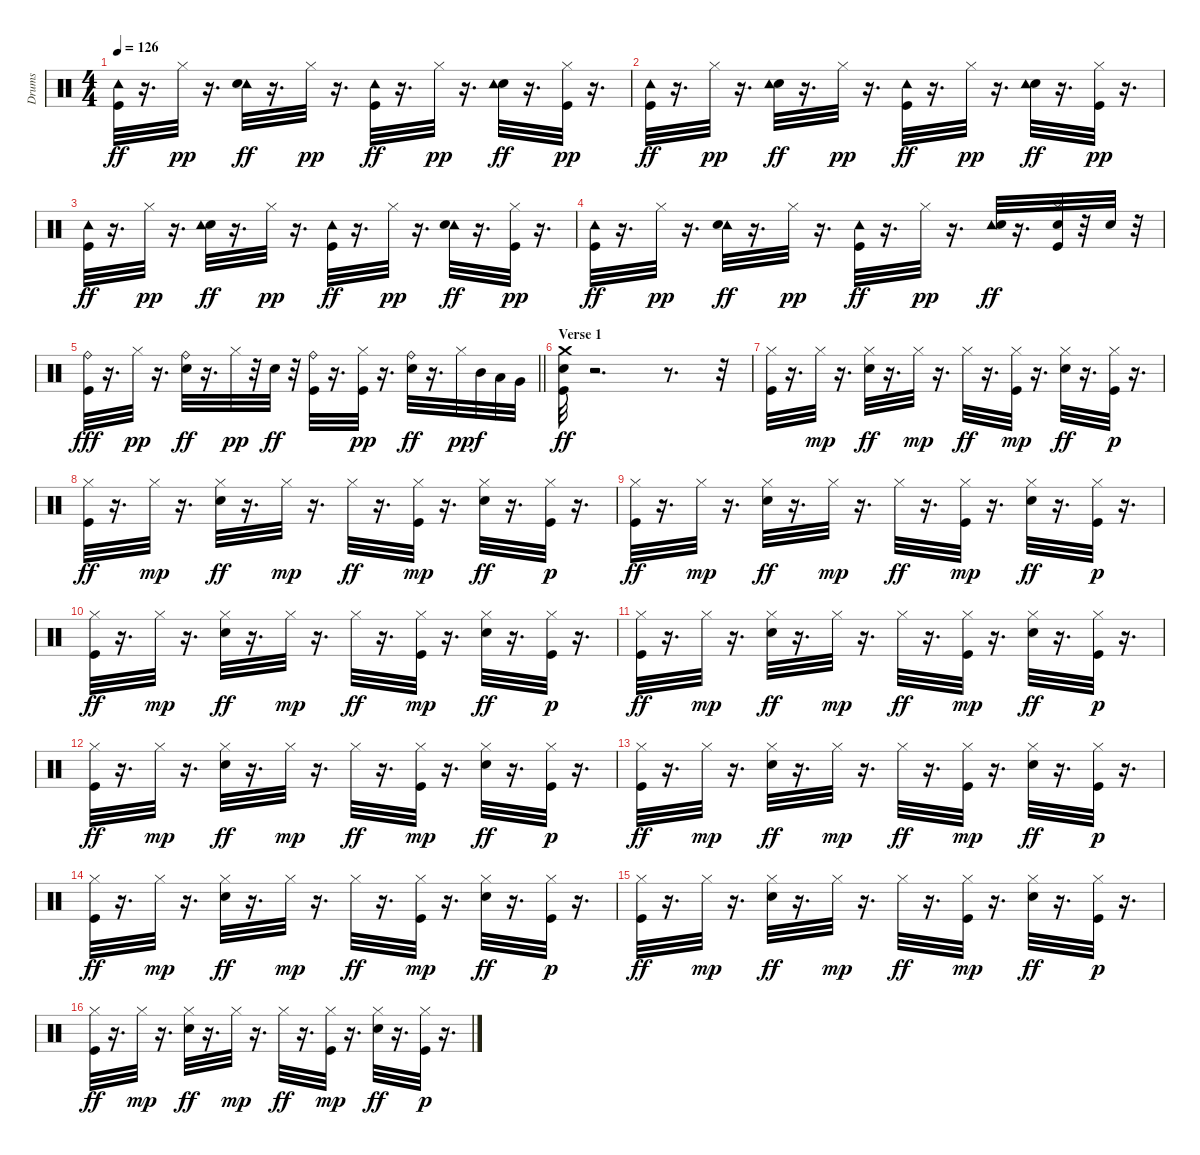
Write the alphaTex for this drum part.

\track ("Drums" "Drums") {instrument percussion}
\staff {score}
\articulation defaults
\ts (4 4)
\tempo 126
\clef neutral
\ks c
("Tambourine (hit)" "Kick (hit)").32{dy ff} r.16{d} "Hi-Hat (closed)".32{dy pp} r.16{d} ("Tambourine (hit)" "Electric Snare (hit)").32{dy ff} r.16{d} "Hi-Hat (closed)".32{dy pp} r.16{d} ("Tambourine (hit)" "Kick (hit)").32{dy ff} r.16{d} "Hi-Hat (closed)".32{dy pp} r.16{d} ("Electric Snare (hit)" "Tambourine (hit)").32{dy ff} r.16{d} ("Hi-Hat (closed)" "Kick (hit)").32{dy pp} r.16{d} |
("Tambourine (hit)" "Kick (hit)").32{dy ff} r.16{d} "Hi-Hat (closed)".32{dy pp} r.16{d} ("Electric Snare (hit)" "Tambourine (hit)").32{dy ff} r.16{d} "Hi-Hat (closed)".32{dy pp} r.16{d} ("Tambourine (hit)" "Kick (hit)").32{dy ff} r.16{d} "Hi-Hat (closed)".32{dy pp} r.16{d} ("Electric Snare (hit)" "Tambourine (hit)").32{dy ff} r.16{d} ("Hi-Hat (closed)" "Kick (hit)").32{dy pp} r.16{d} |
("Tambourine (hit)" "Kick (hit)").32{dy ff} r.16{d} "Hi-Hat (closed)".32{dy pp} r.16{d} ("Electric Snare (hit)" "Tambourine (hit)").32{dy ff} r.16{d} "Hi-Hat (closed)".32{dy pp} r.16{d} ("Kick (hit)" "Tambourine (hit)").32{dy ff} r.16{d} "Hi-Hat (closed)".32{dy pp} r.16{d} ("Tambourine (hit)" "Electric Snare (hit)").32{dy ff} r.16{d} ("Kick (hit)" "Hi-Hat (closed)").32{dy pp} r.16{d} |
("Tambourine (hit)" "Kick (hit)").32{dy ff} r.16{d} "Hi-Hat (closed)".32{dy pp} r.16{d} ("Tambourine (hit)" "Electric Snare (hit)").32{dy ff} r.16{d} "Hi-Hat (closed)".32{dy pp} r.16{d} ("Kick (hit)" "Tambourine (hit)").32{dy ff} r.16{d} "Hi-Hat (closed)".32{dy pp} r.16{d} ("Tambourine (hit)" "Electric Snare (hit)").32{dy ff} r.16{d} ("Hi-Hat (closed)" "Electric Snare (hit)" "Kick (hit)").32 r.32 "Electric Snare (hit)".32 r.32 |
\barLineRight lightlight
("Ride (bell)" "Kick (hit)").32{dy fff} r.16{d} "Hi-Hat (closed)".32{dy pp} r.16{d} ("Electric Snare (hit)" "Ride (bell)").32{dy ff} r.16{d} "Hi-Hat (closed)".32{dy pp} r.32 "Electric Snare (hit)".32{dy ff} r.32 ("Ride (bell)" "Kick (hit)").32 r.16{d} ("Hi-Hat (closed)" "Kick (hit)").32{dy pp} r.16{d} ("Electric Snare (hit)" "Ride (bell)").32{dy ff} r.16{d} "Hi-Hat (closed)".32{dy pp} "Mid Tom (hit)".32{dy f} "Low Tom (hit)".32 "Very Low Tom (hit)".32 |
\section ("" "Verse 1")
("Kick (hit)" "Crash medium (hit)" "Electric Snare (hit)").32{dy ff} r.2{d} r.8{d} r.32 |
("Kick (hit)" "Hi-Hat (closed)").32 r.16{d} "Hi-Hat (closed)".32{dy mp} r.16{d} ("Hi-Hat (closed)" "Electric Snare (hit)").32{dy ff} r.16{d} "Hi-Hat (closed)".32{dy mp} r.16{d} "Hi-Hat (closed)".32{dy ff} r.16{d} ("Kick (hit)" "Hi-Hat (closed)").32{dy mp} r.16{d} ("Electric Snare (hit)" "Hi-Hat (closed)").32{dy ff} r.16{d} ("Kick (hit)" "Hi-Hat (closed)").32{dy p} r.16{d} |
("Kick (hit)" "Hi-Hat (closed)").32{dy ff} r.16{d} "Hi-Hat (closed)".32{dy mp} r.16{d} ("Hi-Hat (closed)" "Electric Snare (hit)").32{dy ff} r.16{d} "Hi-Hat (closed)".32{dy mp} r.16{d} "Hi-Hat (closed)".32{dy ff} r.16{d} ("Kick (hit)" "Hi-Hat (closed)").32{dy mp} r.16{d} ("Electric Snare (hit)" "Hi-Hat (closed)").32{dy ff} r.16{d} ("Kick (hit)" "Hi-Hat (closed)").32{dy p} r.16{d} |
("Kick (hit)" "Hi-Hat (closed)").32{dy ff} r.16{d} "Hi-Hat (closed)".32{dy mp} r.16{d} ("Hi-Hat (closed)" "Electric Snare (hit)").32{dy ff} r.16{d} "Hi-Hat (closed)".32{dy mp} r.16{d} "Hi-Hat (closed)".32{dy ff} r.16{d} ("Kick (hit)" "Hi-Hat (closed)").32{dy mp} r.16{d} ("Electric Snare (hit)" "Hi-Hat (closed)").32{dy ff} r.16{d} ("Kick (hit)" "Hi-Hat (closed)").32{dy p} r.16{d} |
("Kick (hit)" "Hi-Hat (closed)").32{dy ff} r.16{d} "Hi-Hat (closed)".32{dy mp} r.16{d} ("Hi-Hat (closed)" "Electric Snare (hit)").32{dy ff} r.16{d} "Hi-Hat (closed)".32{dy mp} r.16{d} "Hi-Hat (closed)".32{dy ff} r.16{d} ("Kick (hit)" "Hi-Hat (closed)").32{dy mp} r.16{d} ("Electric Snare (hit)" "Hi-Hat (closed)").32{dy ff} r.16{d} ("Kick (hit)" "Hi-Hat (closed)").32{dy p} r.16{d} |
("Kick (hit)" "Hi-Hat (closed)").32{dy ff} r.16{d} "Hi-Hat (closed)".32{dy mp} r.16{d} ("Hi-Hat (closed)" "Electric Snare (hit)").32{dy ff} r.16{d} "Hi-Hat (closed)".32{dy mp} r.16{d} "Hi-Hat (closed)".32{dy ff} r.16{d} ("Kick (hit)" "Hi-Hat (closed)").32{dy mp} r.16{d} ("Electric Snare (hit)" "Hi-Hat (closed)").32{dy ff} r.16{d} ("Kick (hit)" "Hi-Hat (closed)").32{dy p} r.16{d} |
("Kick (hit)" "Hi-Hat (closed)").32{dy ff} r.16{d} "Hi-Hat (closed)".32{dy mp} r.16{d} ("Hi-Hat (closed)" "Electric Snare (hit)").32{dy ff} r.16{d} "Hi-Hat (closed)".32{dy mp} r.16{d} "Hi-Hat (closed)".32{dy ff} r.16{d} ("Kick (hit)" "Hi-Hat (closed)").32{dy mp} r.16{d} ("Electric Snare (hit)" "Hi-Hat (closed)").32{dy ff} r.16{d} ("Kick (hit)" "Hi-Hat (closed)").32{dy p} r.16{d} |
("Kick (hit)" "Hi-Hat (closed)").32{dy ff} r.16{d} "Hi-Hat (closed)".32{dy mp} r.16{d} ("Hi-Hat (closed)" "Electric Snare (hit)").32{dy ff} r.16{d} "Hi-Hat (closed)".32{dy mp} r.16{d} "Hi-Hat (closed)".32{dy ff} r.16{d} ("Kick (hit)" "Hi-Hat (closed)").32{dy mp} r.16{d} ("Electric Snare (hit)" "Hi-Hat (closed)").32{dy ff} r.16{d} ("Kick (hit)" "Hi-Hat (closed)").32{dy p} r.16{d} |
("Kick (hit)" "Hi-Hat (closed)").32{dy ff} r.16{d} "Hi-Hat (closed)".32{dy mp} r.16{d} ("Hi-Hat (closed)" "Electric Snare (hit)").32{dy ff} r.16{d} "Hi-Hat (closed)".32{dy mp} r.16{d} "Hi-Hat (closed)".32{dy ff} r.16{d} ("Kick (hit)" "Hi-Hat (closed)").32{dy mp} r.16{d} ("Electric Snare (hit)" "Hi-Hat (closed)").32{dy ff} r.16{d} ("Kick (hit)" "Hi-Hat (closed)").32{dy p} r.16{d} |
("Kick (hit)" "Hi-Hat (closed)").32{dy ff} r.16{d} "Hi-Hat (closed)".32{dy mp} r.16{d} ("Hi-Hat (closed)" "Electric Snare (hit)").32{dy ff} r.16{d} "Hi-Hat (closed)".32{dy mp} r.16{d} "Hi-Hat (closed)".32{dy ff} r.16{d} ("Kick (hit)" "Hi-Hat (closed)").32{dy mp} r.16{d} ("Electric Snare (hit)" "Hi-Hat (closed)").32{dy ff} r.16{d} ("Kick (hit)" "Hi-Hat (closed)").32{dy p} r.16{d} |
("Kick (hit)" "Hi-Hat (closed)").32{dy ff} r.16{d} "Hi-Hat (closed)".32{dy mp} r.16{d} ("Hi-Hat (closed)" "Electric Snare (hit)").32{dy ff} r.16{d} "Hi-Hat (closed)".32{dy mp} r.16{d} "Hi-Hat (closed)".32{dy ff} r.16{d} ("Kick (hit)" "Hi-Hat (closed)").32{dy mp} r.16{d} ("Electric Snare (hit)" "Hi-Hat (closed)").32{dy ff} r.16{d} ("Kick (hit)" "Hi-Hat (closed)").32{dy p} r.16{d}
